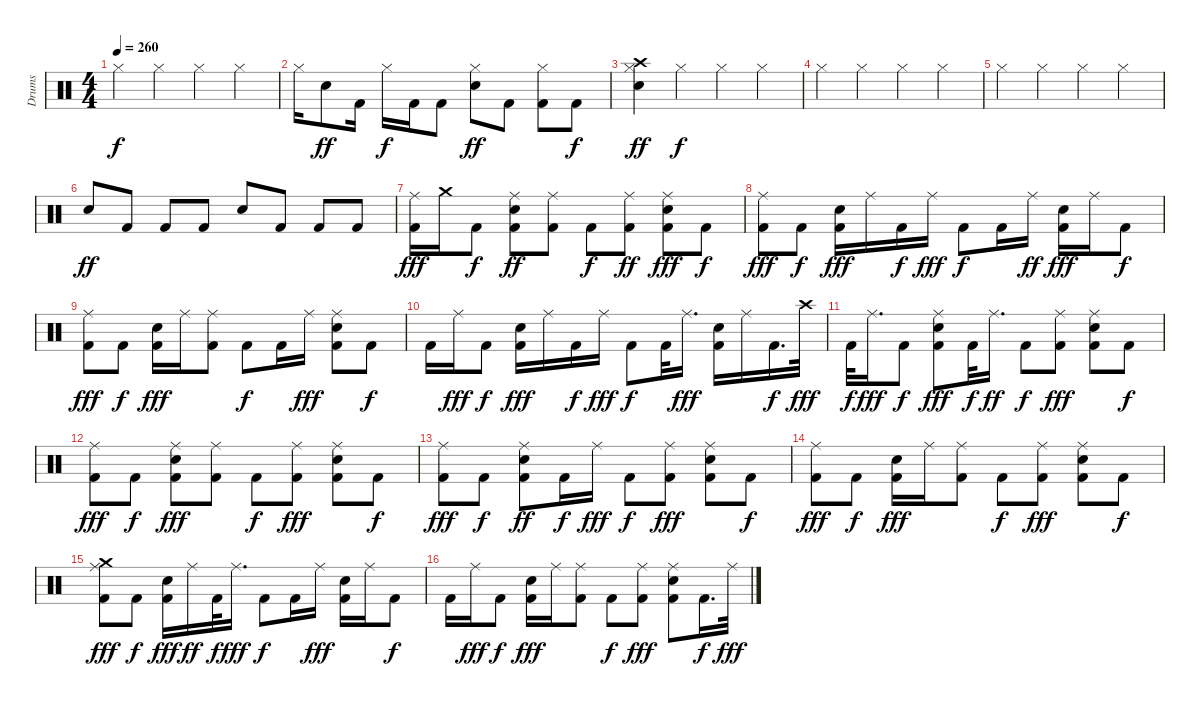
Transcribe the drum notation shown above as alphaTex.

\track ("Drums" "Drums") {instrument percussion}
\staff {score}
\articulation defaults
\ts (4 4)
\tempo 260
\clef neutral
\ks c "Hi-Hat (closed)".4{dy f} "Hi-Hat (closed)".4 "Hi-Hat (closed)".4 "Hi-Hat (closed)".4
|
"Hi-Hat (closed)".16 "Snare (hit) 2".8{dy ff} "Kick (hit) 2".16 "Hi-Hat (closed)".16{dy f} "Kick (hit) 2".16 "Kick (hit) 2".8 ("Hi-Hat (closed)" "Snare (hit) 2").8{dy ff} "Kick (hit) 2".8 ("Hi-Hat (closed)" "Kick (hit) 2").8 "Kick (hit) 2".8{dy f} |
("Hi-Hat (closed)" "Crash high (hit)" "Snare (hit) 2").4{dy ff} "Hi-Hat (closed)".4{dy f} "Hi-Hat (closed)".4 "Hi-Hat (closed)".4 |
"Hi-Hat (closed)".4 "Hi-Hat (closed)".4 "Hi-Hat (closed)".4 "Hi-Hat (closed)".4 |
"Hi-Hat (closed)".4 "Hi-Hat (closed)".4 "Hi-Hat (closed)".4 "Hi-Hat (closed)".4 |
"Snare (hit) 2".8{dy ff} "Kick (hit) 2".8 "Kick (hit) 2".8 "Kick (hit) 2".8 "Snare (hit) 2".8 "Kick (hit) 2".8 "Kick (hit) 2".8 "Kick (hit) 2".8 |
("Ride (middle)" "Kick (hit) 2").16{dy fff} "Crash medium (hit)".16 "Kick (hit) 2".8{dy f} ("Snare (hit) 2" "Kick (hit) 2" "Ride (middle)").8{dy ff} ("Ride (middle)" "Kick (hit) 2").8 "Kick (hit) 2".8{dy f} ("Ride (middle)" "Kick (hit) 2").8{dy ff} ("Ride (middle)" "Snare (hit) 2" "Kick (hit) 2").8{dy fff} "Kick (hit) 2".8{dy f} |
("Kick (hit) 2" "Ride (middle)").8{dy fff} "Kick (hit) 2".8{dy f} ("Snare (hit) 2" "Kick (hit) 2").16{dy fff} "Ride (middle)".16 "Kick (hit) 2".16{dy f} "Ride (middle)".16{dy fff} "Kick (hit) 2".8{dy f} "Kick (hit) 2".16 "Ride (middle)".16{dy ff} ("Snare (hit) 2" "Kick (hit) 2").16{dy fff} "Ride (middle)".16 "Kick (hit) 2".8{dy f} |
("Kick (hit) 2" "Ride (middle)").8{dy fff} "Kick (hit) 2".8{dy f} ("Snare (hit) 2" "Kick (hit) 2").16{dy fff} "Ride (middle)".16 ("Kick (hit) 2" "Ride (middle)").8 "Kick (hit) 2".8{dy f} "Kick (hit) 2".16 "Ride (middle)".16{dy fff} ("Snare (hit) 2" "Kick (hit) 2" "Ride (middle)").8 "Kick (hit) 2".8{dy f} |
"Kick (hit) 2".16 "Ride (middle)".16{dy fff} "Kick (hit) 2".8{dy f} ("Snare (hit) 2" "Kick (hit) 2").16{dy fff} "Ride (middle)".16 "Kick (hit) 2".16{dy f} "Ride (middle)".16{dy fff} "Kick (hit) 2".8{dy f} "Kick (hit) 2".32 "Ride (middle)".16{d dy fff} ("Snare (hit) 2" "Kick (hit) 2").16 "Ride (middle)".16 "Kick (hit) 2".16{d dy f} "Crash high (hit)".32{dy fff} |
"Kick (hit) 2".32{dy f} "Ride (middle)".16{d dy fff} "Kick (hit) 2".8{dy f} ("Snare (hit) 2" "Kick (hit) 2" "Ride (middle)").8{dy fff} "Kick (hit) 2".32{dy f} "Ride (middle)".16{d dy ff} "Kick (hit) 2".8{dy f} ("Kick (hit) 2" "Ride (middle)").8{dy fff} ("Snare (hit) 2" "Kick (hit) 2" "Ride (middle)").8 "Kick (hit) 2".8{dy f} |
("Ride (middle)" "Kick (hit) 2").8{dy fff} "Kick (hit) 2".8{dy f} ("Snare (hit) 2" "Kick (hit) 2" "Ride (middle)").8{dy fff} ("Kick (hit) 2" "Ride (middle)").8 "Kick (hit) 2".8{dy f} ("Kick (hit) 2" "Ride (middle)").8{dy fff} ("Ride (middle)" "Snare (hit) 2" "Kick (hit) 2").8 "Kick (hit) 2".8{dy f} |
("Ride (middle)" "Kick (hit) 2").8{dy fff} "Kick (hit) 2".8{dy f} ("Snare (hit) 2" "Kick (hit) 2" "Ride (middle)").8{dy ff} "Kick (hit) 2".16{dy f} "Ride (middle)".16{dy fff} "Kick (hit) 2".8{dy f} ("Kick (hit) 2" "Ride (middle)").8{dy fff} ("Snare (hit) 2" "Kick (hit) 2" "Ride (middle)").8 "Kick (hit) 2".8{dy f} |
("Kick (hit) 2" "Ride (middle)").8{dy fff} "Kick (hit) 2".8{dy f} ("Snare (hit) 2" "Kick (hit) 2").16{dy fff} "Ride (middle)".16 ("Kick (hit) 2" "Ride (middle)").8 "Kick (hit) 2".8{dy f} ("Kick (hit) 2" "Ride (middle)").8{dy fff} ("Snare (hit) 2" "Kick (hit) 2" "Ride (middle)").8 "Kick (hit) 2".8{dy f} |
("Crash medium (hit)" "Kick (hit) 2" "Ride (middle)").8{dy fff} "Kick (hit) 2".8{dy f} ("Snare (hit) 2" "Kick (hit) 2").16{dy fff} "Ride (middle)".16{dy ff} "Kick (hit) 2".32{dy f} "Ride (middle)".16{d dy fff} "Kick (hit) 2".8{dy f} "Kick (hit) 2".16 "Ride (middle)".16{dy fff} ("Snare (hit) 2" "Kick (hit) 2").16 "Ride (middle)".16 "Kick (hit) 2".8{dy f} |
"Kick (hit) 2".16 "Ride (middle)".16{dy fff} "Kick (hit) 2".8{dy f} ("Snare (hit) 2" "Kick (hit) 2").16{dy fff} "Ride (middle)".16 ("Kick (hit) 2" "Ride (middle)").8 "Kick (hit) 2".8{dy f} ("Kick (hit) 2" "Ride (middle)").8{dy fff} ("Ride (middle)" "Snare (hit) 2" "Kick (hit) 2").8 "Kick (hit) 2".16{d dy f} "Ride (middle)".32{dy fff}
